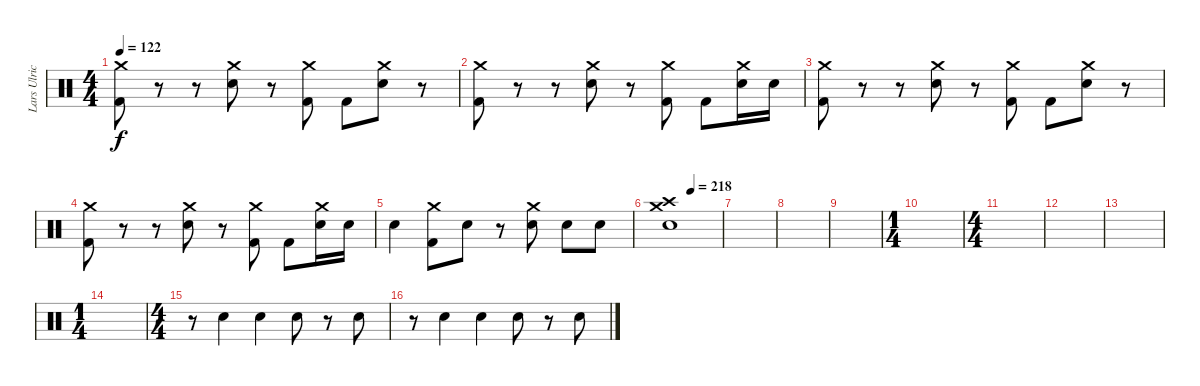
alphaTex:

\track ("Lars Ulrich" "Lars Ulric") {instrument percussion}
\staff {score}
\articulation defaults
\ts (4 4)
\tempo 122
\clef neutral
\ks c
("Crash medium (hit)" "Kick (hit) 2").8{dy f} r.8 r.8 ("Crash medium (hit)" "Electric Snare (hit)").8 r.8 ("Crash medium (hit)" "Kick (hit) 2").8 "Kick (hit) 2".8 ("Crash medium (hit)" "Electric Snare (hit)").8 r.8 |
("Crash medium (hit)" "Kick (hit) 2").8 r.8 r.8 ("Crash medium (hit)" "Electric Snare (hit)").8 r.8 ("Crash medium (hit)" "Kick (hit) 2").8 "Kick (hit) 2".8 ("Crash medium (hit)" "Electric Snare (hit)").16 "Electric Snare (hit)".16 |
("Crash medium (hit)" "Kick (hit) 2").8 r.8 r.8 ("Crash medium (hit)" "Electric Snare (hit)").8 r.8 ("Crash medium (hit)" "Kick (hit) 2").8 "Kick (hit) 2".8 ("Crash medium (hit)" "Electric Snare (hit)").8 r.8 |
("Crash medium (hit)" "Kick (hit) 2").8 r.8 r.8 ("Crash medium (hit)" "Electric Snare (hit)").8 r.8 ("Crash medium (hit)" "Kick (hit) 2").8 "Kick (hit) 2".8 ("Crash medium (hit)" "Electric Snare (hit)").16 "Electric Snare (hit)".16 |
"Electric Snare (hit)".4 ("Crash medium (hit)" "Kick (hit) 2").8 "Electric Snare (hit)".8 r.8 ("Crash medium (hit)" "Electric Snare (hit)").8 "Electric Snare (hit)".8 "Electric Snare (hit)".8 |
\tempo (218 0.5)
("Crash high (hit)" "Crash medium (hit)" "Electric Snare (hit)").1 |
|
|
|
\ts (1 4)
|
\ts (4 4)
|
|
|
\ts (1 4)
|
\ts (4 4)
r.8 "Electric Snare (hit)".4 "Electric Snare (hit)".4 "Electric Snare (hit)".8 r.8 "Electric Snare (hit)".8 |
r.8 "Electric Snare (hit)".4 "Electric Snare (hit)".4 "Electric Snare (hit)".8 r.8 "Electric Snare (hit)".8
